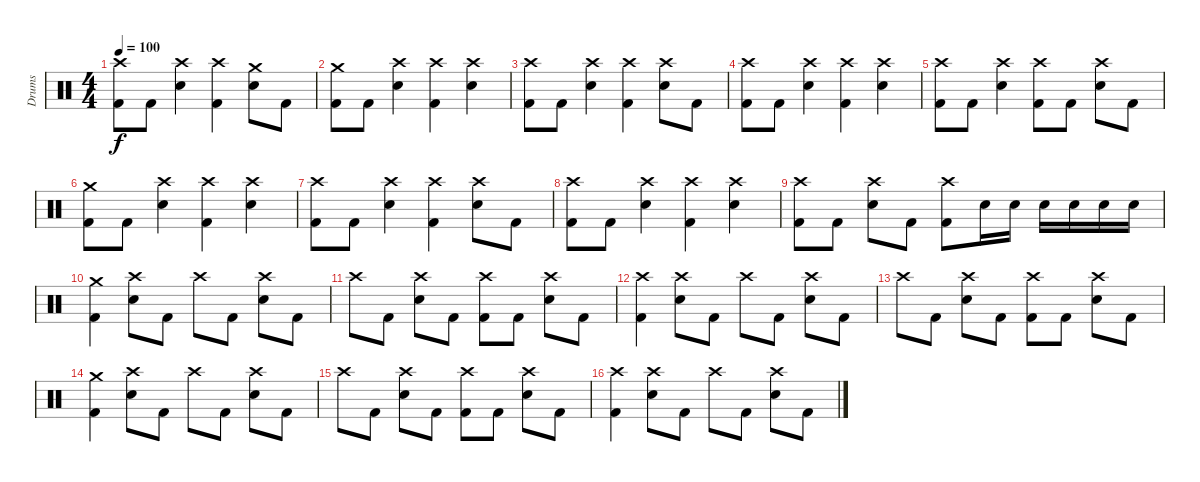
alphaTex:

\track ("Drums" "Drums") {instrument percussion}
\staff {score}
\articulation defaults
\ts (4 4)
\tempo 100
\clef neutral
\ks c
("Crash high (hit)" "Kick (hit) 2").8{dy f} "Kick (hit) 2".8 ("Snare (hit) 2" "Crash high (hit)").4 ("Kick (hit) 2" "Crash high (hit)").4 ("Snare (hit) 2" "Crash medium (hit)").8 "Kick (hit) 2".8 |
("Crash medium (hit)" "Kick (hit) 2").8 "Kick (hit) 2".8 ("Snare (hit) 2" "Crash high (hit)").4 ("Kick (hit) 2" "Crash high (hit)").4 ("Snare (hit) 2" "Crash high (hit)").4 |
("Crash high (hit)" "Kick (hit) 2").8 "Kick (hit) 2".8 ("Snare (hit) 2" "Crash high (hit)").4 ("Kick (hit) 2" "Crash high (hit)").4 ("Snare (hit) 2" "Crash high (hit)").8 "Kick (hit) 2".8 |
("Crash high (hit)" "Kick (hit) 2").8 "Kick (hit) 2".8 ("Snare (hit) 2" "Crash high (hit)").4 ("Kick (hit) 2" "Crash high (hit)").4 ("Snare (hit) 2" "Crash high (hit)").4 |
("Crash high (hit)" "Kick (hit) 2").8 "Kick (hit) 2".8 ("Snare (hit) 2" "Crash high (hit)").4 ("Kick (hit) 2" "Crash high (hit)").8 "Kick (hit) 2".8 ("Snare (hit) 2" "Crash high (hit)").8 "Kick (hit) 2".8 |
("Crash medium (hit)" "Kick (hit) 2").8 "Kick (hit) 2".8 ("Snare (hit) 2" "Crash high (hit)").4 ("Kick (hit) 2" "Crash high (hit)").4 ("Snare (hit) 2" "Crash high (hit)").4 |
("Crash high (hit)" "Kick (hit) 2").8 "Kick (hit) 2".8 ("Snare (hit) 2" "Crash high (hit)").4 ("Kick (hit) 2" "Crash high (hit)").4 ("Snare (hit) 2" "Crash high (hit)").8 "Kick (hit) 2".8 |
("Crash high (hit)" "Kick (hit) 2").8 "Kick (hit) 2".8 ("Snare (hit) 2" "Crash high (hit)").4 ("Kick (hit) 2" "Crash high (hit)").4 ("Snare (hit) 2" "Crash high (hit)").4 |
("Crash high (hit)" "Kick (hit) 2").8 "Kick (hit) 2".8 ("Snare (hit) 2" "Crash high (hit)").8 "Kick (hit) 2".8 ("Kick (hit) 2" "Crash high (hit)").8 "Snare (hit) 2".16 "Snare (hit) 2".16 "Snare (hit) 2".16 "Snare (hit) 2".16 "Snare (hit) 2".16 "Snare (hit) 2".16 |
("Crash medium (hit)" "Kick (hit) 2").4 ("Snare (hit) 2" "Crash high (hit)").8 "Kick (hit) 2".8 "Crash high (hit)".8 "Kick (hit) 2".8 ("Snare (hit) 2" "Crash high (hit)").8 "Kick (hit) 2".8 |
"Crash high (hit)".8 "Kick (hit) 2".8 ("Snare (hit) 2" "Crash high (hit)").8 "Kick (hit) 2".8 ("Crash high (hit)" "Kick (hit) 2").8 "Kick (hit) 2".8 ("Snare (hit) 2" "Crash high (hit)").8 "Kick (hit) 2".8 |
("Crash high (hit)" "Kick (hit) 2").4 ("Snare (hit) 2" "Crash high (hit)").8 "Kick (hit) 2".8 "Crash high (hit)".8 "Kick (hit) 2".8 ("Snare (hit) 2" "Crash high (hit)").8 "Kick (hit) 2".8 |
"Crash high (hit)".8 "Kick (hit) 2".8 ("Snare (hit) 2" "Crash high (hit)").8 "Kick (hit) 2".8 ("Kick (hit) 2" "Crash high (hit)").8 "Kick (hit) 2".8 ("Snare (hit) 2" "Crash high (hit)").8 "Kick (hit) 2".8 |
("Crash medium (hit)" "Kick (hit) 2").4 ("Snare (hit) 2" "Crash high (hit)").8 "Kick (hit) 2".8 "Crash high (hit)".8 "Kick (hit) 2".8 ("Snare (hit) 2" "Crash high (hit)").8 "Kick (hit) 2".8 |
"Crash high (hit)".8 "Kick (hit) 2".8 ("Snare (hit) 2" "Crash high (hit)").8 "Kick (hit) 2".8 ("Crash high (hit)" "Kick (hit) 2").8 "Kick (hit) 2".8 ("Snare (hit) 2" "Crash high (hit)").8 "Kick (hit) 2".8 |
("Crash high (hit)" "Kick (hit) 2").4 ("Snare (hit) 2" "Crash high (hit)").8 "Kick (hit) 2".8 "Crash high (hit)".8 "Kick (hit) 2".8 ("Snare (hit) 2" "Crash high (hit)").8 "Kick (hit) 2".8
